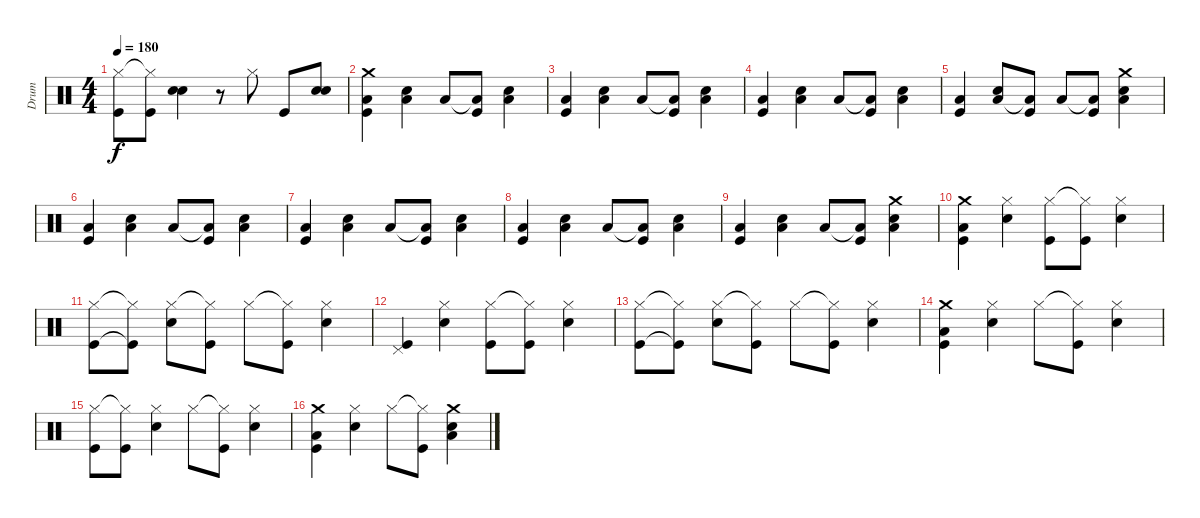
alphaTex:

\track ("Drum" "Drum") {instrument percussion}
\staff {score}
\articulation defaults
\ts (4 4)
\tempo 180
\clef neutral
\ks c
("Hi-Hat (closed)" "Kick (hit)").8{dy f} ("Hi-Hat (closed)"{t} "Kick (hit)").8 ("Snare (hit) 2" "Snare (hit) 2").4 r.8 "Hi-Hat (closed)".8 "Kick (hit)".8 ("Snare (hit) 2" "Snare (hit) 2").8 |
("Low Floor Tom (hit)" "Crash medium (hit)" "Kick (hit)").4 ("Low Floor Tom (hit)" "Snare (hit) 2").4 "Low Floor Tom (hit)".8 ("Low Floor Tom (hit)"{t} "Kick (hit)").8 ("Low Floor Tom (hit)" "Snare (hit) 2").4 |
("Low Floor Tom (hit)" "Kick (hit)").4 ("Low Floor Tom (hit)" "Snare (hit) 2").4 "Low Floor Tom (hit)".8 ("Low Floor Tom (hit)"{t} "Kick (hit)").8 ("Low Floor Tom (hit)" "Snare (hit) 2").4 |
("Low Floor Tom (hit)" "Kick (hit)").4 ("Low Floor Tom (hit)" "Snare (hit) 2").4 "Low Floor Tom (hit)".8 ("Low Floor Tom (hit)"{t} "Kick (hit)").8 ("Low Floor Tom (hit)" "Snare (hit) 2").4 |
("Low Floor Tom (hit)" "Kick (hit)").4 ("Low Floor Tom (hit)" "Snare (hit) 2").8 ("Low Floor Tom (hit)"{t} "Kick (hit)").8 "Low Floor Tom (hit)".8 ("Low Floor Tom (hit)"{t} "Kick (hit)").8 ("Low Floor Tom (hit)" "Snare (hit) 2" "Crash medium (hit)").4 |
("Low Floor Tom (hit)" "Kick (hit)").4 ("Low Floor Tom (hit)" "Snare (hit) 2").4 "Low Floor Tom (hit)".8 ("Low Floor Tom (hit)"{t} "Kick (hit)").8 ("Low Floor Tom (hit)" "Snare (hit) 2").4 |
("Low Floor Tom (hit)" "Kick (hit)").4 ("Low Floor Tom (hit)" "Snare (hit) 2").4 "Low Floor Tom (hit)".8 ("Low Floor Tom (hit)"{t} "Kick (hit)").8 ("Low Floor Tom (hit)" "Snare (hit) 2").4 |
("Low Floor Tom (hit)" "Kick (hit)").4 ("Low Floor Tom (hit)" "Snare (hit) 2").4 "Low Floor Tom (hit)".8 ("Low Floor Tom (hit)"{t} "Kick (hit)").8 ("Low Floor Tom (hit)" "Snare (hit) 2").4 |
("Low Floor Tom (hit)" "Kick (hit)").4 ("Low Floor Tom (hit)" "Snare (hit) 2").4 "Low Floor Tom (hit)".8 ("Low Floor Tom (hit)"{t} "Kick (hit)").8 ("Low Floor Tom (hit)" "Snare (hit) 2" "Crash medium (hit)").4 |
("Low Floor Tom (hit)" "Crash medium (hit)" "Kick (hit)").4 ("Hi-Hat (closed)" "Snare (hit) 2").4 ("Hi-Hat (closed)" "Kick (hit)").8 ("Hi-Hat (closed)"{t} "Kick (hit)").8 ("Hi-Hat (closed)" "Snare (hit) 2").4 |
("Hi-Hat (closed)" "Kick (hit)").8 ("Hi-Hat (closed)"{t} "Kick (hit)"{t}).8 ("Hi-Hat (closed)" "Snare (hit) 2").8 ("Hi-Hat (closed)"{t} "Kick (hit)").8 "Hi-Hat (closed)".8 ("Hi-Hat (closed)"{t} "Kick (hit)").8 ("Hi-Hat (closed)" "Snare (hit) 2").4 |
("Pedal Hi-Hat (hit)" "Kick (hit)").4 ("Hi-Hat (closed)" "Snare (hit) 2").4 ("Hi-Hat (closed)" "Kick (hit)").8 ("Hi-Hat (closed)"{t} "Kick (hit)").8 ("Hi-Hat (closed)" "Snare (hit) 2").4 |
("Hi-Hat (closed)" "Kick (hit)").8 ("Hi-Hat (closed)"{t} "Kick (hit)"{t}).8 ("Hi-Hat (closed)" "Snare (hit) 2").8 ("Hi-Hat (closed)"{t} "Kick (hit)").8 "Hi-Hat (closed)".8 ("Hi-Hat (closed)"{t} "Kick (hit)").8 ("Hi-Hat (closed)" "Snare (hit) 2").4 |
("Low Floor Tom (hit)" "Crash medium (hit)" "Kick (hit)").4 ("Hi-Hat (closed)" "Snare (hit) 2").4 "Hi-Hat (closed)".8 ("Hi-Hat (closed)"{t} "Kick (hit)").8 ("Hi-Hat (closed)" "Snare (hit) 2").4 |
("Hi-Hat (closed)" "Kick (hit)").8 ("Hi-Hat (closed)"{t} "Kick (hit)").8 ("Hi-Hat (closed)" "Snare (hit) 2").4 "Hi-Hat (closed)".8 ("Hi-Hat (closed)"{t} "Kick (hit)").8 ("Hi-Hat (closed)" "Snare (hit) 2").4 |
("Low Floor Tom (hit)" "Crash medium (hit)" "Kick (hit)").4 ("Hi-Hat (closed)" "Snare (hit) 2").4 "Hi-Hat (closed)".8 ("Hi-Hat (closed)"{t} "Kick (hit)").8 ("Low Floor Tom (hit)" "Snare (hit) 2" "Crash medium (hit)").4
